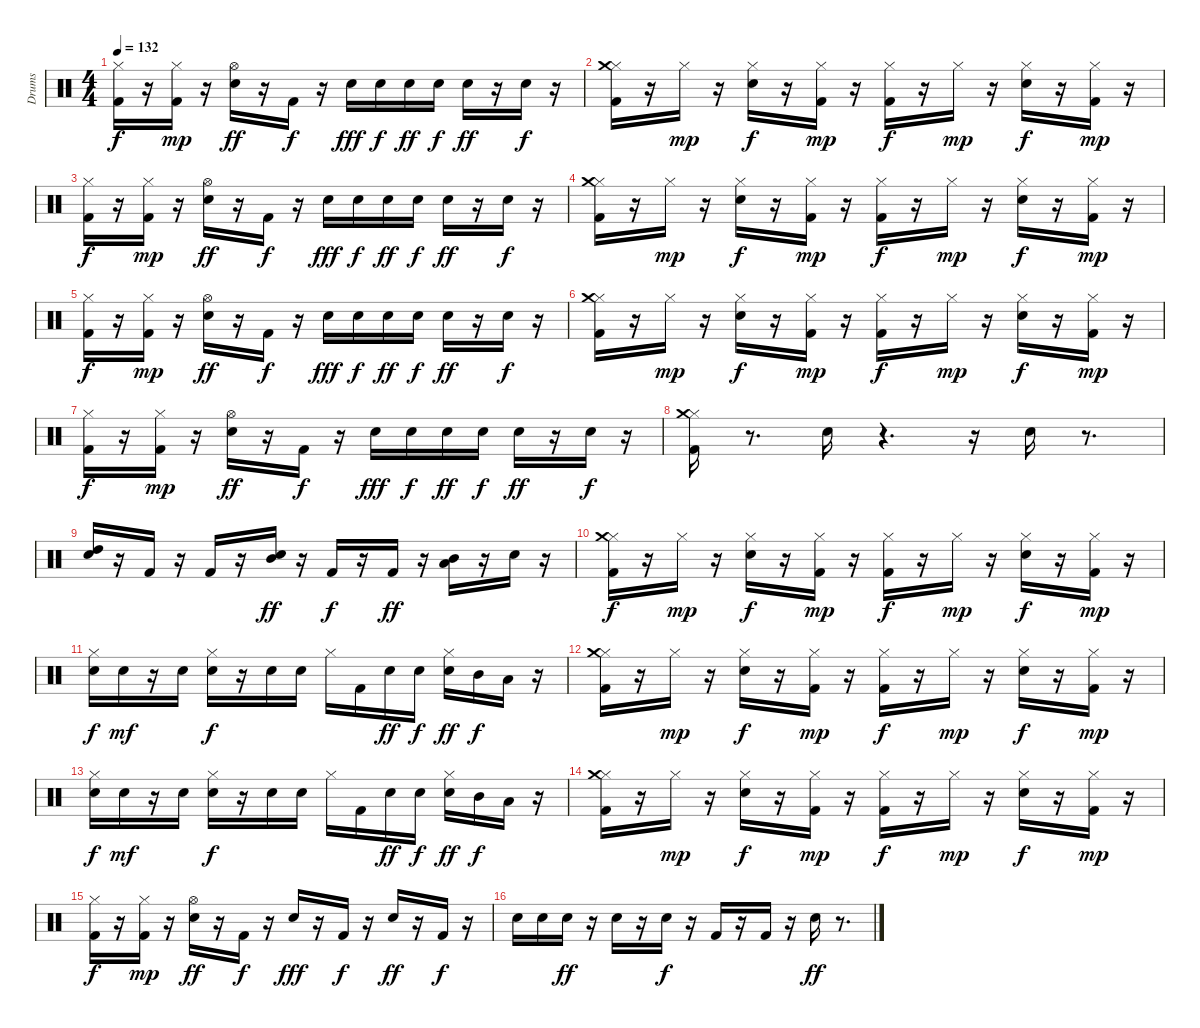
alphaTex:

\track ("Drums" "Drums") {instrument percussion}
\staff {score}
\articulation defaults
\ts (4 4)
\tempo 132
\clef neutral
\ks c
("Kick (hit) 2" "Hi-Hat (closed)").16{dy f} r.16 ("Kick (hit) 2" "Hi-Hat (closed)").16{dy mp} r.16 ("Snare (hit) 2" "Hi-Hat (open)").16{dy ff} r.16 "Kick (hit) 2".16{dy f} r.16 "Snare (hit) 2".16{dy fff} "Snare (hit) 2".16{dy f} "Snare (hit) 2".16{dy ff} "Snare (hit) 2".16{dy f} "Snare (hit) 2".16{dy ff} r.16 "Snare (hit) 2".16{dy f} r.16 |
("Kick (hit) 2" "Hi-Hat (closed)" "Crash medium (hit)").16 r.16 "Hi-Hat (closed)".16{dy mp} r.16 ("Snare (hit) 2" "Hi-Hat (closed)").16{dy f} r.16 ("Kick (hit) 2" "Hi-Hat (closed)").16{dy mp} r.16 ("Kick (hit) 2" "Hi-Hat (closed)").16{dy f} r.16 "Hi-Hat (closed)".16{dy mp} r.16 ("Snare (hit) 2" "Hi-Hat (closed)").16{dy f} r.16 ("Kick (hit) 2" "Hi-Hat (closed)").16{dy mp} r.16 |
("Kick (hit) 2" "Hi-Hat (closed)").16{dy f} r.16 ("Kick (hit) 2" "Hi-Hat (closed)").16{dy mp} r.16 ("Snare (hit) 2" "Hi-Hat (open)").16{dy ff} r.16 "Kick (hit) 2".16{dy f} r.16 "Snare (hit) 2".16{dy fff} "Snare (hit) 2".16{dy f} "Snare (hit) 2".16{dy ff} "Snare (hit) 2".16{dy f} "Snare (hit) 2".16{dy ff} r.16 "Snare (hit) 2".16{dy f} r.16 |
("Kick (hit) 2" "Hi-Hat (closed)" "Crash medium (hit)").16 r.16 "Hi-Hat (closed)".16{dy mp} r.16 ("Snare (hit) 2" "Hi-Hat (closed)").16{dy f} r.16 ("Kick (hit) 2" "Hi-Hat (closed)").16{dy mp} r.16 ("Kick (hit) 2" "Hi-Hat (closed)").16{dy f} r.16 "Hi-Hat (closed)".16{dy mp} r.16 ("Snare (hit) 2" "Hi-Hat (closed)").16{dy f} r.16 ("Kick (hit) 2" "Hi-Hat (closed)").16{dy mp} r.16 |
("Kick (hit) 2" "Hi-Hat (closed)").16{dy f} r.16 ("Kick (hit) 2" "Hi-Hat (closed)").16{dy mp} r.16 ("Snare (hit) 2" "Hi-Hat (open)").16{dy ff} r.16 "Kick (hit) 2".16{dy f} r.16 "Snare (hit) 2".16{dy fff} "Snare (hit) 2".16{dy f} "Snare (hit) 2".16{dy ff} "Snare (hit) 2".16{dy f} "Snare (hit) 2".16{dy ff} r.16 "Snare (hit) 2".16{dy f} r.16 |
("Kick (hit) 2" "Hi-Hat (closed)" "Crash medium (hit)").16 r.16 "Hi-Hat (closed)".16{dy mp} r.16 ("Snare (hit) 2" "Hi-Hat (closed)").16{dy f} r.16 ("Kick (hit) 2" "Hi-Hat (closed)").16{dy mp} r.16 ("Kick (hit) 2" "Hi-Hat (closed)").16{dy f} r.16 "Hi-Hat (closed)".16{dy mp} r.16 ("Snare (hit) 2" "Hi-Hat (closed)").16{dy f} r.16 ("Kick (hit) 2" "Hi-Hat (closed)").16{dy mp} r.16 |
("Kick (hit) 2" "Hi-Hat (closed)").16{dy f} r.16 ("Kick (hit) 2" "Hi-Hat (closed)").16{dy mp} r.16 ("Snare (hit) 2" "Hi-Hat (open)").16{dy ff} r.16 "Kick (hit) 2".16{dy f} r.16 "Snare (hit) 2".16{dy fff} "Snare (hit) 2".16{dy f} "Snare (hit) 2".16{dy ff} "Snare (hit) 2".16{dy f} "Snare (hit) 2".16{dy ff} r.16 "Snare (hit) 2".16{dy f} r.16 |
("Kick (hit) 2" "Hi-Hat (closed)" "Crash medium (hit)").16 r.8{d} "Snare (hit) 2".16 r.4{d} r.16 "Snare (hit) 2".16 r.8{d} |
("Snare (hit) 2" "High Tom (hit)").16 r.16 "Kick (hit) 2".16 r.16 "Kick (hit) 2".16 r.16 ("Snare (hit) 2" "Mid Tom (hit)").16{dy ff} r.16 "Kick (hit) 2".16{dy f} r.16 "Kick (hit) 2".16{dy ff} r.16 ("Low Floor Tom (hit)" "Mid Tom (hit)").16 r.16 "Snare (hit) 2".16 r.16 |
("Kick (hit) 2" "Hi-Hat (closed)" "Crash medium (hit)").16{dy f} r.16 "Hi-Hat (closed)".16{dy mp} r.16 ("Snare (hit) 2" "Hi-Hat (closed)").16{dy f} r.16 ("Kick (hit) 2" "Hi-Hat (closed)").16{dy mp} r.16 ("Kick (hit) 2" "Hi-Hat (closed)").16{dy f} r.16 "Hi-Hat (closed)".16{dy mp} r.16 ("Snare (hit) 2" "Hi-Hat (closed)").16{dy f} r.16 ("Kick (hit) 2" "Hi-Hat (closed)").16{dy mp} r.16 |
("Snare (hit) 2" "Hi-Hat (closed)").16{dy f} "Snare (hit) 2".16{dy mf} r.16 "Snare (hit) 2".16 ("Snare (hit) 2" "Hi-Hat (closed)").16{dy f} r.16 "Snare (hit) 2".16 "Snare (hit) 2".16 "Hi-Hat (closed)".16 "Kick (hit) 2".16 "Snare (hit) 2".16{dy ff} "Snare (hit) 2".16{dy f} ("Snare (hit) 2" "Hi-Hat (closed)").16{dy ff} "Mid Tom (hit)".16{dy f} "Low Floor Tom (hit)".16 r.16 |
("Kick (hit) 2" "Hi-Hat (closed)" "Crash medium (hit)").16 r.16 "Hi-Hat (closed)".16{dy mp} r.16 ("Snare (hit) 2" "Hi-Hat (closed)").16{dy f} r.16 ("Kick (hit) 2" "Hi-Hat (closed)").16{dy mp} r.16 ("Kick (hit) 2" "Hi-Hat (closed)").16{dy f} r.16 "Hi-Hat (closed)".16{dy mp} r.16 ("Snare (hit) 2" "Hi-Hat (closed)").16{dy f} r.16 ("Kick (hit) 2" "Hi-Hat (closed)").16{dy mp} r.16 |
("Snare (hit) 2" "Hi-Hat (closed)").16{dy f} "Snare (hit) 2".16{dy mf} r.16 "Snare (hit) 2".16 ("Snare (hit) 2" "Hi-Hat (closed)").16{dy f} r.16 "Snare (hit) 2".16 "Snare (hit) 2".16 "Hi-Hat (closed)".16 "Kick (hit) 2".16 "Snare (hit) 2".16{dy ff} "Snare (hit) 2".16{dy f} ("Snare (hit) 2" "Hi-Hat (closed)").16{dy ff} "Mid Tom (hit)".16{dy f} "Low Floor Tom (hit)".16 r.16 |
("Kick (hit) 2" "Hi-Hat (closed)" "Crash medium (hit)").16 r.16 "Hi-Hat (closed)".16{dy mp} r.16 ("Snare (hit) 2" "Hi-Hat (closed)").16{dy f} r.16 ("Kick (hit) 2" "Hi-Hat (closed)").16{dy mp} r.16 ("Kick (hit) 2" "Hi-Hat (closed)").16{dy f} r.16 "Hi-Hat (closed)".16{dy mp} r.16 ("Snare (hit) 2" "Hi-Hat (closed)").16{dy f} r.16 ("Kick (hit) 2" "Hi-Hat (closed)").16{dy mp} r.16 |
("Kick (hit) 2" "Hi-Hat (closed)").16{dy f} r.16 ("Kick (hit) 2" "Hi-Hat (closed)").16{dy mp} r.16 ("Snare (hit) 2" "Hi-Hat (open)").16{dy ff} r.16 "Kick (hit) 2".16{dy f} r.16 "Snare (hit) 2".16{dy fff} r.16 "Kick (hit) 2".16{dy f} r.16 "Snare (hit) 2".16{dy ff} r.16 "Kick (hit) 2".16{dy f} r.16 |
"Snare (hit) 2".16 "Snare (hit) 2".16 "Snare (hit) 2".16{dy ff} r.16 "Snare (hit) 2".16 r.16 "Snare (hit) 2".16{dy f} r.16 "Kick (hit) 2".16 r.16 "Kick (hit) 2".16 r.16 "Snare (hit) 2".16{dy ff} r.8{d}
